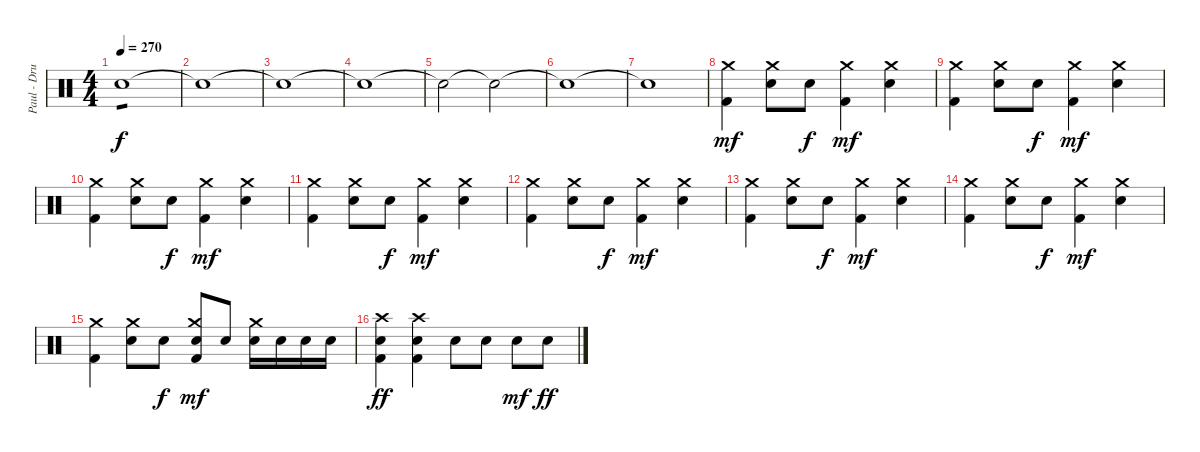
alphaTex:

\track ("Paul - Drums" "Paul - Dru") {instrument percussion}
\staff {score}
\articulation defaults
\ts (4 4)
\tempo 270
\clef neutral
\ks c "Electric Snare (hit)".1{tp 1 dy f volume 6}
|
"Snare (hit)"{t}.1 |
"Snare (hit)"{t}.1 |
"Snare (hit)"{t}.1 |
"Snare (hit)"{t}.2{volume 12} "Snare (hit)"{t}.2 |
"Snare (hit)"{t}.1 |
"Snare (hit)"{t}.1 |
("Crash medium (hit)" "Kick (hit) 2").4{dy mf} ("Crash medium (hit)" "Electric Snare (hit)").8 "Electric Snare (hit)".8{dy f} ("Crash medium (hit)" "Kick (hit) 2").4{dy mf} ("Crash medium (hit)" "Electric Snare (hit)").4 |
("Crash medium (hit)" "Kick (hit) 2").4 ("Crash medium (hit)" "Electric Snare (hit)").8 "Electric Snare (hit)".8{dy f} ("Crash medium (hit)" "Kick (hit) 2").4{dy mf} ("Crash medium (hit)" "Electric Snare (hit)").4 |
("Crash medium (hit)" "Kick (hit) 2").4 ("Crash medium (hit)" "Electric Snare (hit)").8 "Electric Snare (hit)".8{dy f} ("Crash medium (hit)" "Kick (hit) 2").4{dy mf} ("Crash medium (hit)" "Electric Snare (hit)").4 |
("Crash medium (hit)" "Kick (hit) 2").4 ("Crash medium (hit)" "Electric Snare (hit)").8 "Electric Snare (hit)".8{dy f} ("Crash medium (hit)" "Kick (hit) 2").4{dy mf} ("Crash medium (hit)" "Electric Snare (hit)").4 |
("Crash medium (hit)" "Kick (hit) 2").4 ("Crash medium (hit)" "Electric Snare (hit)").8 "Electric Snare (hit)".8{dy f} ("Crash medium (hit)" "Kick (hit) 2").4{dy mf} ("Crash medium (hit)" "Electric Snare (hit)").4 |
("Crash medium (hit)" "Kick (hit) 2").4 ("Crash medium (hit)" "Electric Snare (hit)").8 "Electric Snare (hit)".8{dy f} ("Crash medium (hit)" "Kick (hit) 2").4{dy mf} ("Crash medium (hit)" "Electric Snare (hit)").4 |
("Crash medium (hit)" "Kick (hit) 2").4 ("Crash medium (hit)" "Electric Snare (hit)").8 "Electric Snare (hit)".8{dy f} ("Crash medium (hit)" "Kick (hit) 2").4{dy mf} ("Crash medium (hit)" "Electric Snare (hit)").4 |
("Crash medium (hit)" "Kick (hit) 2").4 ("Crash medium (hit)" "Electric Snare (hit)").8 "Electric Snare (hit)".8{dy f} ("Crash medium (hit)" "Electric Snare (hit)" "Kick (hit) 2").8{dy mf} "Electric Snare (hit)".8 ("Crash medium (hit)" "Electric Snare (hit)").16 "Electric Snare (hit)".16 "Electric Snare (hit)".16 "Electric Snare (hit)".16 |
("Crash high (hit)" "Electric Snare (hit)" "Kick (hit) 2").4{dy ff} ("Crash high (hit)" "Electric Snare (hit)" "Kick (hit) 2").4 "Electric Snare (hit)".8 "Electric Snare (hit)".8 "Electric Snare (hit)".8{dy mf} "Electric Snare (hit)".8{dy ff}
